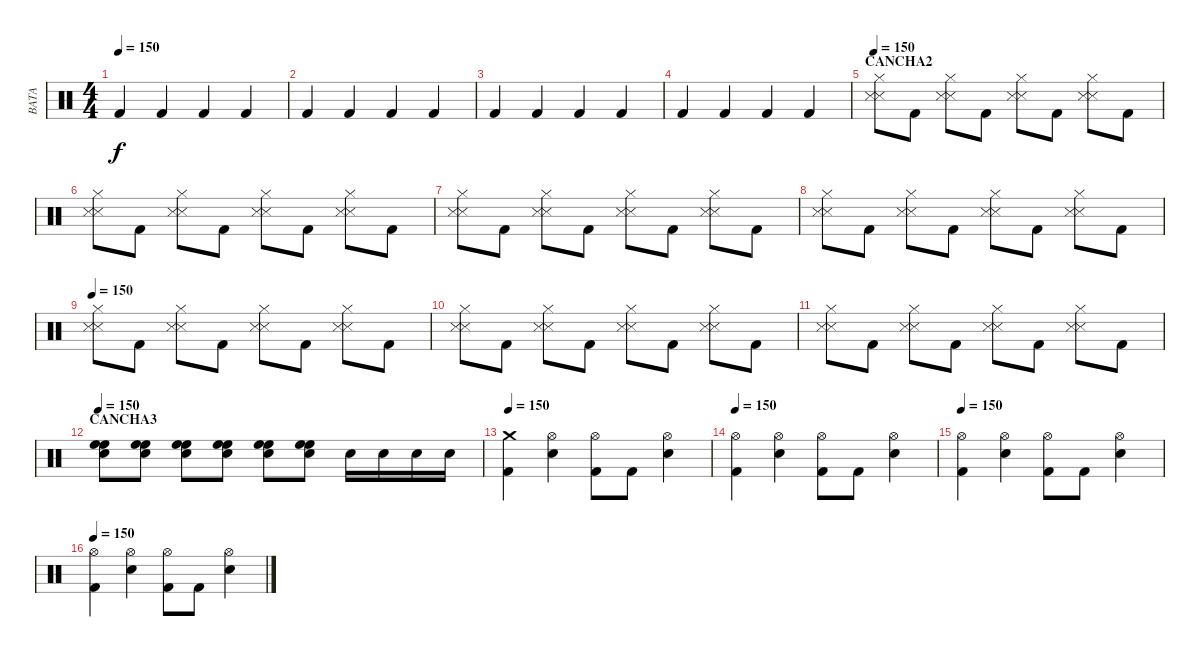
\track ("BATA" "BATA") {instrument percussion}
\staff {score}
\articulation defaults
\ts (4 4)
\tempo 150
\clef neutral
\ks c "Kick (hit) 2".4{dy f} "Kick (hit) 2".4 "Kick (hit) 2".4 "Kick (hit) 2".4
|
"Kick (hit) 2".4 "Kick (hit) 2".4 "Kick (hit) 2".4 "Kick (hit) 2".4 |
"Kick (hit) 2".4 "Kick (hit) 2".4 "Kick (hit) 2".4 "Kick (hit) 2".4 |
"Kick (hit) 2".4 "Kick (hit) 2".4 "Kick (hit) 2".4 "Kick (hit) 2".4 |
\section ("" "CANCHA2")
\tempo 150
("Hi-Hat (closed)" "Snare (side stick) 3" "Snare (side stick) 3").8 "Kick (hit) 2".8 ("Hi-Hat (closed)" "Snare (side stick) 3" "Snare (side stick) 3").8 "Kick (hit) 2".8 ("Hi-Hat (closed)" "Snare (side stick) 3" "Snare (side stick) 3").8 "Kick (hit) 2".8 ("Hi-Hat (closed)" "Snare (side stick) 3" "Snare (side stick) 3").8 "Kick (hit) 2".8 |
("Hi-Hat (closed)" "Snare (side stick) 3" "Snare (side stick) 3").8 "Kick (hit) 2".8 ("Hi-Hat (closed)" "Snare (side stick) 3" "Snare (side stick) 3").8 "Kick (hit) 2".8 ("Hi-Hat (closed)" "Snare (side stick) 3" "Snare (side stick) 3").8 "Kick (hit) 2".8 ("Hi-Hat (closed)" "Snare (side stick) 3" "Snare (side stick) 3").8 "Kick (hit) 2".8 |
("Hi-Hat (closed)" "Snare (side stick) 3" "Snare (side stick) 3").8 "Kick (hit) 2".8 ("Hi-Hat (closed)" "Snare (side stick) 3" "Snare (side stick) 3").8 "Kick (hit) 2".8 ("Hi-Hat (closed)" "Snare (side stick) 3" "Snare (side stick) 3").8 "Kick (hit) 2".8 ("Hi-Hat (closed)" "Snare (side stick) 3" "Snare (side stick) 3").8 "Kick (hit) 2".8 |
("Hi-Hat (closed)" "Snare (side stick) 3" "Snare (side stick) 3").8 "Kick (hit) 2".8 ("Hi-Hat (closed)" "Snare (side stick) 3" "Snare (side stick) 3").8 "Kick (hit) 2".8 ("Hi-Hat (closed)" "Snare (side stick) 3" "Snare (side stick) 3").8 "Kick (hit) 2".8 ("Hi-Hat (closed)" "Snare (side stick) 3" "Snare (side stick) 3").8 "Kick (hit) 2".8 |
\tempo 150
("Hi-Hat (closed)" "Snare (side stick) 3" "Snare (side stick) 3").8 "Kick (hit) 2".8 ("Hi-Hat (closed)" "Snare (side stick) 3" "Snare (side stick) 3").8 "Kick (hit) 2".8 ("Hi-Hat (closed)" "Snare (side stick) 3" "Snare (side stick) 3").8 "Kick (hit) 2".8 ("Hi-Hat (closed)" "Snare (side stick) 3" "Snare (side stick) 3").8 "Kick (hit) 2".8 |
("Hi-Hat (closed)" "Snare (side stick) 3" "Snare (side stick) 3").8 "Kick (hit) 2".8 ("Hi-Hat (closed)" "Snare (side stick) 3" "Snare (side stick) 3").8 "Kick (hit) 2".8 ("Hi-Hat (closed)" "Snare (side stick) 3" "Snare (side stick) 3").8 "Kick (hit) 2".8 ("Hi-Hat (closed)" "Snare (side stick) 3" "Snare (side stick) 3").8 "Kick (hit) 2".8 |
("Hi-Hat (closed)" "Snare (side stick) 3" "Snare (side stick) 3").8 "Kick (hit) 2".8 ("Hi-Hat (closed)" "Snare (side stick) 3" "Snare (side stick) 3").8 "Kick (hit) 2".8 ("Hi-Hat (closed)" "Snare (side stick) 3" "Snare (side stick) 3").8 "Kick (hit) 2".8 ("Hi-Hat (closed)" "Snare (side stick) 3" "Snare (side stick) 3").8 "Kick (hit) 2".8 |
\section ("" "CANCHA3")
\tempo 150
("High Floor Tom (hit)" "High Floor Tom (hit)" "Snare (hit) 2").8 ("High Floor Tom (hit)" "High Floor Tom (hit)" "Snare (hit) 2").8 ("High Floor Tom (hit)" "High Floor Tom (hit)" "Snare (hit) 2").8 ("High Floor Tom (hit)" "High Floor Tom (hit)" "Snare (hit) 2").8 ("High Floor Tom (hit)" "High Floor Tom (hit)" "Snare (hit) 2").8 ("High Floor Tom (hit)" "High Floor Tom (hit)" "Snare (hit) 2").8 "Snare (hit) 2".16 "Snare (hit) 2".16 "Snare (hit) 2".16 "Snare (hit) 2".16 |
\tempo 150
("Crash medium (hit)" "Kick (hit) 2").4 ("Hi-Hat (open)" "Snare (hit) 2").4 ("Hi-Hat (open)" "Kick (hit) 2").8 "Kick (hit) 2".8 ("Hi-Hat (open)" "Snare (hit) 2").4 |
\tempo 150
("Hi-Hat (open)" "Kick (hit) 2").4 ("Hi-Hat (open)" "Snare (hit) 2").4 ("Hi-Hat (open)" "Kick (hit) 2").8 "Kick (hit) 2".8 ("Hi-Hat (open)" "Snare (hit) 2").4 |
\tempo 150
("Hi-Hat (open)" "Kick (hit) 2").4 ("Hi-Hat (open)" "Snare (hit) 2").4 ("Hi-Hat (open)" "Kick (hit) 2").8 "Kick (hit) 2".8 ("Hi-Hat (open)" "Snare (hit) 2").4 |
\tempo 150
("Hi-Hat (open)" "Kick (hit) 2").4 ("Hi-Hat (open)" "Snare (hit) 2").4 ("Hi-Hat (open)" "Kick (hit) 2").8 "Kick (hit) 2".8 ("Hi-Hat (open)" "Snare (hit) 2").4
